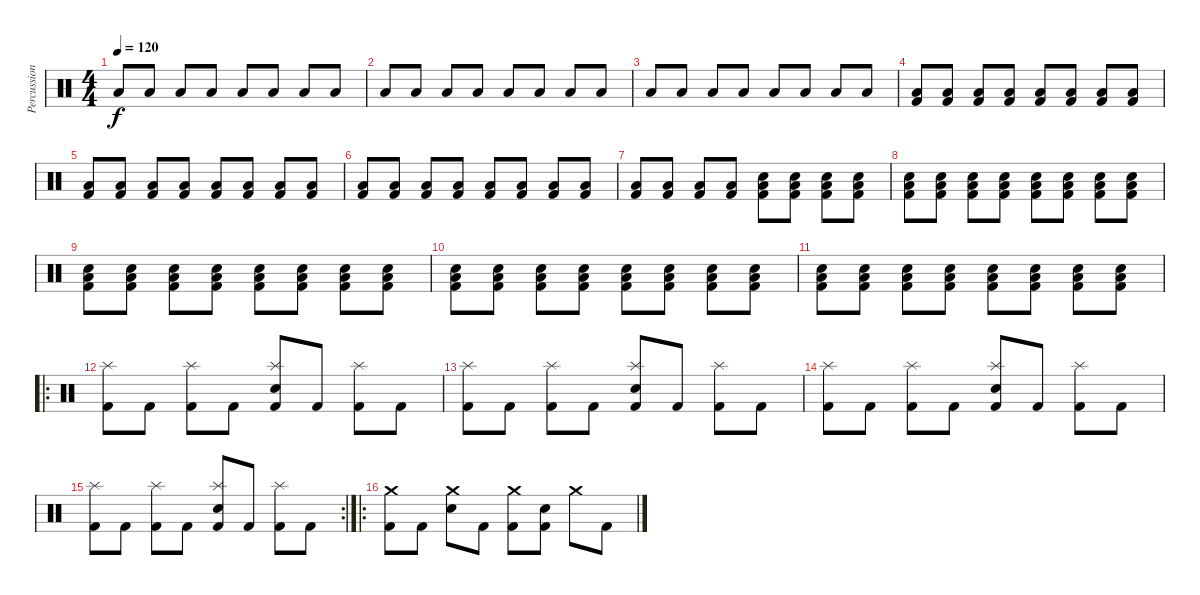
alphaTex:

\track ("Percussion" "Percussion") {instrument percussion}
\staff {score}
\articulation defaults
\ts (4 4)
\tempo 120
\clef neutral
\ks c "Low Tom (hit)".8{dy f} "Low Tom (hit)".8 "Low Tom (hit)".8 "Low Tom (hit)".8 "Low Tom (hit)".8 "Low Tom (hit)".8 "Low Tom (hit)".8 "Low Tom (hit)".8
|
"Low Tom (hit)".8 "Low Tom (hit)".8 "Low Tom (hit)".8 "Low Tom (hit)".8 "Low Tom (hit)".8 "Low Tom (hit)".8 "Low Tom (hit)".8 "Low Tom (hit)".8 |
"Low Tom (hit)".8 "Low Tom (hit)".8 "Low Tom (hit)".8 "Low Tom (hit)".8 "Low Tom (hit)".8 "Low Tom (hit)".8 "Low Tom (hit)".8 "Low Tom (hit)".8 |
("Kick (hit) 2" "Low Tom (hit)").8 ("Kick (hit) 2" "Low Tom (hit)").8 ("Kick (hit) 2" "Low Tom (hit)").8 ("Kick (hit) 2" "Low Tom (hit)").8 ("Kick (hit) 2" "Low Tom (hit)").8 ("Kick (hit) 2" "Low Tom (hit)").8 ("Kick (hit) 2" "Low Tom (hit)").8 ("Kick (hit) 2" "Low Tom (hit)").8 |
("Kick (hit) 2" "Low Tom (hit)").8 ("Kick (hit) 2" "Low Tom (hit)").8 ("Kick (hit) 2" "Low Tom (hit)").8 ("Kick (hit) 2" "Low Tom (hit)").8 ("Kick (hit) 2" "Low Tom (hit)").8 ("Kick (hit) 2" "Low Tom (hit)").8 ("Kick (hit) 2" "Low Tom (hit)").8 ("Kick (hit) 2" "Low Tom (hit)").8 |
("Kick (hit) 2" "Low Tom (hit)").8 ("Kick (hit) 2" "Low Tom (hit)").8 ("Kick (hit) 2" "Low Tom (hit)").8 ("Kick (hit) 2" "Low Tom (hit)").8 ("Kick (hit) 2" "Low Tom (hit)").8 ("Kick (hit) 2" "Low Tom (hit)").8 ("Kick (hit) 2" "Low Tom (hit)").8 ("Kick (hit) 2" "Low Tom (hit)").8 |
("Kick (hit) 2" "Low Tom (hit)").8 ("Kick (hit) 2" "Low Tom (hit)").8 ("Kick (hit) 2" "Low Tom (hit)").8 ("Kick (hit) 2" "Low Tom (hit)").8 ("Electric Snare (hit)" "Kick (hit) 2" "Low Tom (hit)").8 ("Electric Snare (hit)" "Kick (hit) 2" "Low Tom (hit)").8 ("Electric Snare (hit)" "Kick (hit) 2" "Low Tom (hit)").8 ("Electric Snare (hit)" "Kick (hit) 2" "Low Tom (hit)").8 |
("Electric Snare (hit)" "Kick (hit) 2" "Low Tom (hit)").8 ("Electric Snare (hit)" "Kick (hit) 2" "Low Tom (hit)").8 ("Electric Snare (hit)" "Kick (hit) 2" "Low Tom (hit)").8 ("Electric Snare (hit)" "Kick (hit) 2" "Low Tom (hit)").8 ("Electric Snare (hit)" "Kick (hit) 2" "Low Tom (hit)").8 ("Electric Snare (hit)" "Kick (hit) 2" "Low Tom (hit)").8 ("Electric Snare (hit)" "Kick (hit) 2" "Low Tom (hit)").8 ("Electric Snare (hit)" "Kick (hit) 2" "Low Tom (hit)").8 |
("Electric Snare (hit)" "Kick (hit) 2" "Low Tom (hit)").8 ("Electric Snare (hit)" "Kick (hit) 2" "Low Tom (hit)").8 ("Electric Snare (hit)" "Kick (hit) 2" "Low Tom (hit)").8 ("Electric Snare (hit)" "Kick (hit) 2" "Low Tom (hit)").8 ("Electric Snare (hit)" "Kick (hit) 2" "Low Tom (hit)").8 ("Electric Snare (hit)" "Kick (hit) 2" "Low Tom (hit)").8 ("Electric Snare (hit)" "Kick (hit) 2" "Low Tom (hit)").8 ("Electric Snare (hit)" "Kick (hit) 2" "Low Tom (hit)").8 |
("Electric Snare (hit)" "Kick (hit) 2" "Low Tom (hit)").8 ("Electric Snare (hit)" "Kick (hit) 2" "Low Tom (hit)").8 ("Electric Snare (hit)" "Kick (hit) 2" "Low Tom (hit)").8 ("Electric Snare (hit)" "Kick (hit) 2" "Low Tom (hit)").8 ("Electric Snare (hit)" "Kick (hit) 2" "Low Tom (hit)").8 ("Electric Snare (hit)" "Kick (hit) 2" "Low Tom (hit)").8 ("Electric Snare (hit)" "Kick (hit) 2" "Low Tom (hit)").8 ("Electric Snare (hit)" "Kick (hit) 2" "Low Tom (hit)").8 |
("Electric Snare (hit)" "Kick (hit) 2" "Low Tom (hit)").8 ("Electric Snare (hit)" "Kick (hit) 2" "Low Tom (hit)").8 ("Electric Snare (hit)" "Kick (hit) 2" "Low Tom (hit)").8 ("Electric Snare (hit)" "Kick (hit) 2" "Low Tom (hit)").8 ("Electric Snare (hit)" "Kick (hit) 2" "Low Tom (hit)").8 ("Electric Snare (hit)" "Kick (hit) 2" "Low Tom (hit)").8 ("Electric Snare (hit)" "Kick (hit) 2" "Low Tom (hit)").8 ("Electric Snare (hit)" "Kick (hit) 2" "Low Tom (hit)").8 |
\ro
("Kick (hit) 2" "Splash (hit)").8 "Kick (hit) 2".8 ("Splash (hit)" "Kick (hit) 2").8 "Kick (hit) 2".8 ("Snare (hit) 2" "Splash (hit)" "Kick (hit) 2").8 "Kick (hit) 2".8 ("Splash (hit)" "Kick (hit) 2").8 "Kick (hit) 2".8 |
("Kick (hit) 2" "Splash (hit)").8 "Kick (hit) 2".8 ("Splash (hit)" "Kick (hit) 2").8 "Kick (hit) 2".8 ("Snare (hit) 2" "Splash (hit)" "Kick (hit) 2").8 "Kick (hit) 2".8 ("Splash (hit)" "Kick (hit) 2").8 "Kick (hit) 2".8 |
("Kick (hit) 2" "Splash (hit)").8 "Kick (hit) 2".8 ("Splash (hit)" "Kick (hit) 2").8 "Kick (hit) 2".8 ("Snare (hit) 2" "Splash (hit)" "Kick (hit) 2").8 "Kick (hit) 2".8 ("Splash (hit)" "Kick (hit) 2").8 "Kick (hit) 2".8 |
\rc 2
("Kick (hit) 2" "Splash (hit)").8 "Kick (hit) 2".8 ("Splash (hit)" "Kick (hit) 2").8 "Kick (hit) 2".8 ("Snare (hit) 2" "Splash (hit)" "Kick (hit) 2").8 "Kick (hit) 2".8 ("Splash (hit)" "Kick (hit) 2").8 "Kick (hit) 2".8 |
\ro
("Crash medium (hit)" "Kick (hit) 2").8 "Kick (hit) 2".8 ("Crash medium (hit)" "Snare (hit) 2").8 "Kick (hit) 2".8 ("Crash medium (hit)" "Kick (hit) 2").8 ("Snare (hit) 2" "Kick (hit) 2").8 "Crash medium (hit)".8 "Kick (hit) 2".8
